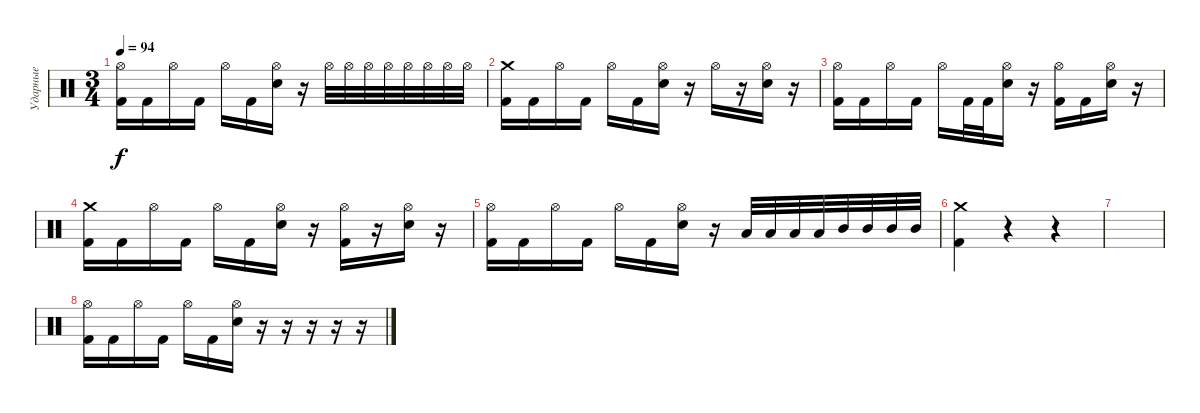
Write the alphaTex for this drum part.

\track ("Ударные" "Ударные") {instrument percussion}
\staff {score}
\articulation defaults
\ts (3 4)
\tempo 94
\clef neutral
\ks c
("Hi-Hat (open)" "Kick (hit) 2").16{dy f} "Kick (hit) 2".16 "Hi-Hat (open)".16 "Kick (hit) 2".16 "Hi-Hat (open)".16 "Kick (hit) 2".16 ("Hi-Hat (open)" "Electric Snare (hit)").16 r.16 "Hi-Hat (open)".32 "Hi-Hat (open)".32 "Hi-Hat (open)".32 "Hi-Hat (open)".32 "Hi-Hat (open)".32 "Hi-Hat (open)".32 "Hi-Hat (open)".32 "Hi-Hat (open)".32 |
("Crash medium (hit)" "Kick (hit) 2").16 "Kick (hit) 2".16 "Hi-Hat (open)".16 "Kick (hit) 2".16 "Hi-Hat (open)".16 "Kick (hit) 2".16 ("Hi-Hat (open)" "Electric Snare (hit)").16 r.16 "Hi-Hat (open)".16 r.16 ("Hi-Hat (open)" "Electric Snare (hit)").16 r.16 |
("Hi-Hat (open)" "Kick (hit) 2").16 "Kick (hit) 2".16 "Hi-Hat (open)".16 "Kick (hit) 2".16 "Hi-Hat (open)".16 "Kick (hit) 2".32 "Kick (hit) 2".32 ("Hi-Hat (open)" "Electric Snare (hit)").16 r.16 ("Hi-Hat (open)" "Kick (hit) 2").16 "Kick (hit) 2".16 ("Hi-Hat (open)" "Electric Snare (hit)").16 r.16 |
("Crash medium (hit)" "Kick (hit) 2").16 "Kick (hit) 2".16 "Hi-Hat (open)".16 "Kick (hit) 2".16 "Hi-Hat (open)".16 "Kick (hit) 2".16 ("Hi-Hat (open)" "Electric Snare (hit)").16 r.16 ("Hi-Hat (open)" "Kick (hit) 2").16 r.16 ("Hi-Hat (open)" "Electric Snare (hit)").16 r.16 |
("Hi-Hat (open)" "Kick (hit) 2").16 "Kick (hit) 2".16 "Hi-Hat (open)".16 "Kick (hit) 2".16 "Hi-Hat (open)".16 "Kick (hit) 2".16 ("Hi-Hat (open)" "Electric Snare (hit)").16 r.16 "Low Tom (hit)".32 "Low Tom (hit)".32 "Low Tom (hit)".32 "Low Tom (hit)".32 "Mid Tom (hit)".32 "Mid Tom (hit)".32 "Mid Tom (hit)".32 "Mid Tom (hit)".32 |
("Crash medium (hit)" "Kick (hit) 2").4 r.4 r.4 |
|
("Hi-Hat (open)" "Kick (hit) 2").16 "Kick (hit) 2".16 "Hi-Hat (open)".16 "Kick (hit) 2".16 "Hi-Hat (open)".16 "Kick (hit) 2".16 ("Hi-Hat (open)" "Electric Snare (hit)").16 r.16 r.16 r.16 r.16 r.16
